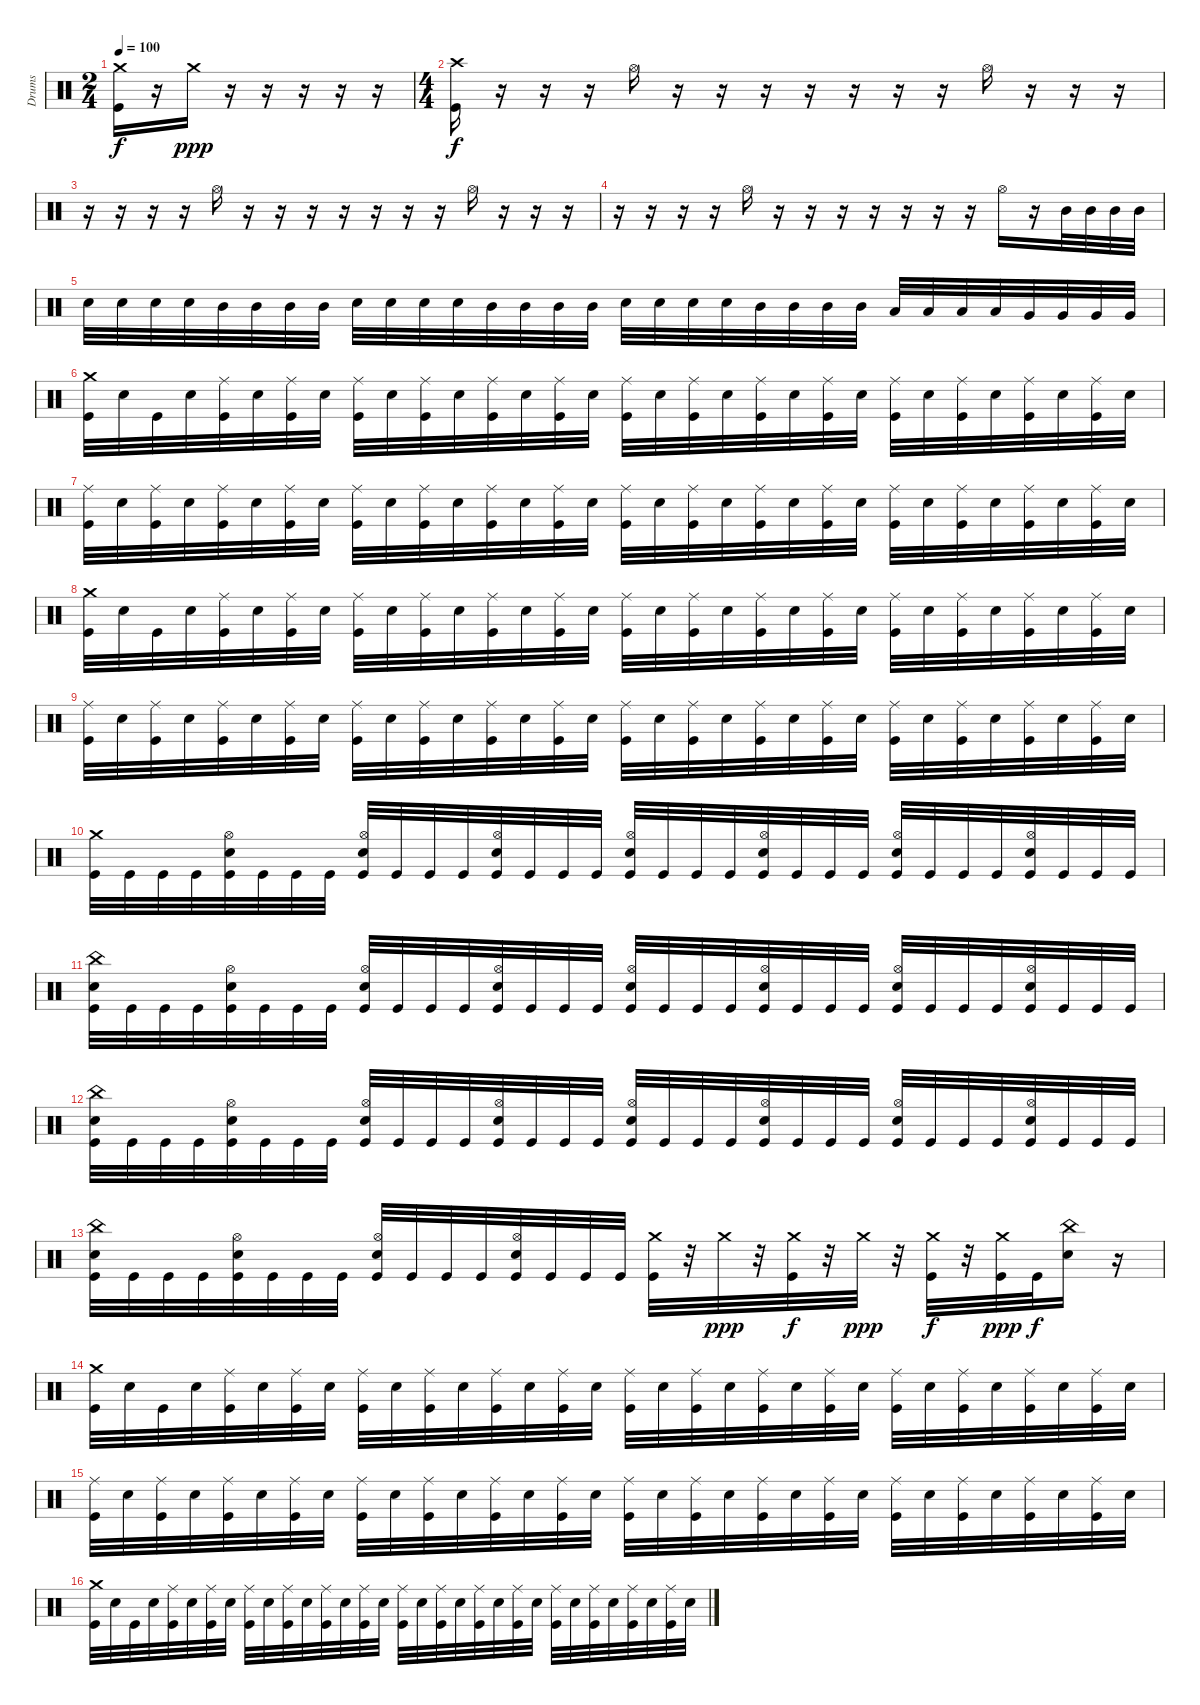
\track ("Drums" "Drums") {instrument percussion}
\staff {score}
\articulation defaults
\ts (2 4)
\tempo 100
\clef neutral
\ks c
("Crash medium (hit)" "Kick (hit)").16{dy f} r.16 "Crash medium (hit)".16{dy ppp} r.16 r.16 r.16 r.16 r.16 |
\ts (4 4)
("Crash high (hit)" "Kick (hit)").16{dy f} r.16 r.16 r.16 "Hi-Hat (open)".16 r.16 r.16 r.16 r.16 r.16 r.16 r.16 "Hi-Hat (open)".16 r.16 r.16 r.16 |
r.16 r.16 r.16 r.16 "Hi-Hat (open)".16 r.16 r.16 r.16 r.16 r.16 r.16 r.16 "Hi-Hat (open)".16 r.16 r.16 r.16 |
r.16 r.16 r.16 r.16 "Hi-Hat (open)".16 r.16 r.16 r.16 r.16 r.16 r.16 r.16 "Hi-Hat (open)".16 r.16 "Mid Tom (hit)".32 "Mid Tom (hit)".32 "Mid Tom (hit)".32 "Mid Tom (hit)".32 |
"Snare (hit) 2".32 "Snare (hit) 2".32 "Snare (hit) 2".32 "Snare (hit) 2".32 "Mid Tom (hit)".32 "Mid Tom (hit)".32 "Mid Tom (hit)".32 "Mid Tom (hit)".32 "Snare (hit) 2".32 "Snare (hit) 2".32 "Snare (hit) 2".32 "Snare (hit) 2".32 "Mid Tom (hit)".32 "Mid Tom (hit)".32 "Mid Tom (hit)".32 "Mid Tom (hit)".32 "Snare (hit) 2".32 "Snare (hit) 2".32 "Snare (hit) 2".32 "Snare (hit) 2".32 "Mid Tom (hit)".32 "Mid Tom (hit)".32 "Mid Tom (hit)".32 "Mid Tom (hit)".32 "Low Tom (hit)".32 "Low Tom (hit)".32 "Low Tom (hit)".32 "Low Tom (hit)".32 "Very Low Tom (hit)".32 "Very Low Tom (hit)".32 "Very Low Tom (hit)".32 "Very Low Tom (hit)".32 |
("Crash medium (hit)" "Kick (hit)").32 "Snare (hit) 2".32 "Kick (hit)".32 "Snare (hit) 2".32 ("Ride (middle)" "Kick (hit)").32 "Snare (hit) 2".32 ("Ride (middle)" "Kick (hit)").32 "Snare (hit) 2".32 ("Ride (middle)" "Kick (hit)").32 "Snare (hit) 2".32 ("Ride (middle)" "Kick (hit)").32 "Snare (hit) 2".32 ("Ride (middle)" "Kick (hit)").32 "Snare (hit) 2".32 ("Ride (middle)" "Kick (hit)").32 "Snare (hit) 2".32 ("Ride (middle)" "Kick (hit)").32 "Snare (hit) 2".32 ("Ride (middle)" "Kick (hit)").32 "Snare (hit) 2".32 ("Ride (middle)" "Kick (hit)").32 "Snare (hit) 2".32 ("Ride (middle)" "Kick (hit)").32 "Snare (hit) 2".32 ("Ride (middle)" "Kick (hit)").32 "Snare (hit) 2".32 ("Ride (middle)" "Kick (hit)").32 "Snare (hit) 2".32 ("Ride (middle)" "Kick (hit)").32 "Snare (hit) 2".32 ("Ride (middle)" "Kick (hit)").32 "Snare (hit) 2".32 |
("Ride (middle)" "Kick (hit)").32 "Snare (hit) 2".32 ("Ride (middle)" "Kick (hit)").32 "Snare (hit) 2".32 ("Ride (middle)" "Kick (hit)").32 "Snare (hit) 2".32 ("Ride (middle)" "Kick (hit)").32 "Snare (hit) 2".32 ("Ride (middle)" "Kick (hit)").32 "Snare (hit) 2".32 ("Ride (middle)" "Kick (hit)").32 "Snare (hit) 2".32 ("Ride (middle)" "Kick (hit)").32 "Snare (hit) 2".32 ("Ride (middle)" "Kick (hit)").32 "Snare (hit) 2".32 ("Ride (middle)" "Kick (hit)").32 "Snare (hit) 2".32 ("Ride (middle)" "Kick (hit)").32 "Snare (hit) 2".32 ("Ride (middle)" "Kick (hit)").32 "Snare (hit) 2".32 ("Ride (middle)" "Kick (hit)").32 "Snare (hit) 2".32 ("Ride (middle)" "Kick (hit)").32 "Snare (hit) 2".32 ("Ride (middle)" "Kick (hit)").32 "Snare (hit) 2".32 ("Ride (middle)" "Kick (hit)").32 "Snare (hit) 2".32 ("Ride (middle)" "Kick (hit)").32 "Snare (hit) 2".32 |
("Crash medium (hit)" "Kick (hit)").32 "Snare (hit) 2".32 "Kick (hit)".32 "Snare (hit) 2".32 ("Ride (middle)" "Kick (hit)").32 "Snare (hit) 2".32 ("Ride (middle)" "Kick (hit)").32 "Snare (hit) 2".32 ("Ride (middle)" "Kick (hit)").32 "Snare (hit) 2".32 ("Ride (middle)" "Kick (hit)").32 "Snare (hit) 2".32 ("Ride (middle)" "Kick (hit)").32 "Snare (hit) 2".32 ("Ride (middle)" "Kick (hit)").32 "Snare (hit) 2".32 ("Ride (middle)" "Kick (hit)").32 "Snare (hit) 2".32 ("Ride (middle)" "Kick (hit)").32 "Snare (hit) 2".32 ("Ride (middle)" "Kick (hit)").32 "Snare (hit) 2".32 ("Ride (middle)" "Kick (hit)").32 "Snare (hit) 2".32 ("Ride (middle)" "Kick (hit)").32 "Snare (hit) 2".32 ("Ride (middle)" "Kick (hit)").32 "Snare (hit) 2".32 ("Ride (middle)" "Kick (hit)").32 "Snare (hit) 2".32 ("Ride (middle)" "Kick (hit)").32 "Snare (hit) 2".32 |
("Ride (middle)" "Kick (hit)").32 "Snare (hit) 2".32 ("Ride (middle)" "Kick (hit)").32 "Snare (hit) 2".32 ("Ride (middle)" "Kick (hit)").32 "Snare (hit) 2".32 ("Ride (middle)" "Kick (hit)").32 "Snare (hit) 2".32 ("Ride (middle)" "Kick (hit)").32 "Snare (hit) 2".32 ("Ride (middle)" "Kick (hit)").32 "Snare (hit) 2".32 ("Ride (middle)" "Kick (hit)").32 "Snare (hit) 2".32 ("Ride (middle)" "Kick (hit)").32 "Snare (hit) 2".32 ("Ride (middle)" "Kick (hit)").32 "Snare (hit) 2".32 ("Ride (middle)" "Kick (hit)").32 "Snare (hit) 2".32 ("Ride (middle)" "Kick (hit)").32 "Snare (hit) 2".32 ("Ride (middle)" "Kick (hit)").32 "Snare (hit) 2".32 ("Ride (middle)" "Kick (hit)").32 "Snare (hit) 2".32 ("Ride (middle)" "Kick (hit)").32 "Snare (hit) 2".32 ("Ride (middle)" "Kick (hit)").32 "Snare (hit) 2".32 ("Ride (middle)" "Kick (hit)").32 "Snare (hit) 2".32 |
("Crash medium (hit)" "Kick (hit)").32 "Kick (hit)".32 "Kick (hit)".32 "Kick (hit)".32 ("Hi-Hat (open)" "Snare (hit) 2" "Kick (hit)").32 "Kick (hit)".32 "Kick (hit)".32 "Kick (hit)".32 ("Hi-Hat (open)" "Snare (hit) 2" "Kick (hit)").32 "Kick (hit)".32 "Kick (hit)".32 "Kick (hit)".32 ("Hi-Hat (open)" "Snare (hit) 2" "Kick (hit)").32 "Kick (hit)".32 "Kick (hit)".32 "Kick (hit)".32 ("Hi-Hat (open)" "Snare (hit) 2" "Kick (hit)").32 "Kick (hit)".32 "Kick (hit)".32 "Kick (hit)".32 ("Hi-Hat (open)" "Snare (hit) 2" "Kick (hit)").32 "Kick (hit)".32 "Kick (hit)".32 "Kick (hit)".32 ("Hi-Hat (open)" "Snare (hit) 2" "Kick (hit)").32 "Kick (hit)".32 "Kick (hit)".32 "Kick (hit)".32 ("Hi-Hat (open)" "Snare (hit) 2" "Kick (hit)").32 "Kick (hit)".32 "Kick (hit)".32 "Kick (hit)".32 |
("China (hit)" "Snare (hit) 2" "Kick (hit)").32 "Kick (hit)".32 "Kick (hit)".32 "Kick (hit)".32 ("Hi-Hat (open)" "Snare (hit) 2" "Kick (hit)").32 "Kick (hit)".32 "Kick (hit)".32 "Kick (hit)".32 ("Hi-Hat (open)" "Snare (hit) 2" "Kick (hit)").32 "Kick (hit)".32 "Kick (hit)".32 "Kick (hit)".32 ("Hi-Hat (open)" "Snare (hit) 2" "Kick (hit)").32 "Kick (hit)".32 "Kick (hit)".32 "Kick (hit)".32 ("Hi-Hat (open)" "Snare (hit) 2" "Kick (hit)").32 "Kick (hit)".32 "Kick (hit)".32 "Kick (hit)".32 ("Hi-Hat (open)" "Snare (hit) 2" "Kick (hit)").32 "Kick (hit)".32 "Kick (hit)".32 "Kick (hit)".32 ("Hi-Hat (open)" "Snare (hit) 2" "Kick (hit)").32 "Kick (hit)".32 "Kick (hit)".32 "Kick (hit)".32 ("Hi-Hat (open)" "Snare (hit) 2" "Kick (hit)").32 "Kick (hit)".32 "Kick (hit)".32 "Kick (hit)".32 |
("China (hit)" "Snare (hit) 2" "Kick (hit)").32 "Kick (hit)".32 "Kick (hit)".32 "Kick (hit)".32 ("Hi-Hat (open)" "Snare (hit) 2" "Kick (hit)").32 "Kick (hit)".32 "Kick (hit)".32 "Kick (hit)".32 ("Hi-Hat (open)" "Snare (hit) 2" "Kick (hit)").32 "Kick (hit)".32 "Kick (hit)".32 "Kick (hit)".32 ("Hi-Hat (open)" "Snare (hit) 2" "Kick (hit)").32 "Kick (hit)".32 "Kick (hit)".32 "Kick (hit)".32 ("Hi-Hat (open)" "Snare (hit) 2" "Kick (hit)").32 "Kick (hit)".32 "Kick (hit)".32 "Kick (hit)".32 ("Hi-Hat (open)" "Snare (hit) 2" "Kick (hit)").32 "Kick (hit)".32 "Kick (hit)".32 "Kick (hit)".32 ("Hi-Hat (open)" "Snare (hit) 2" "Kick (hit)").32 "Kick (hit)".32 "Kick (hit)".32 "Kick (hit)".32 ("Hi-Hat (open)" "Snare (hit) 2" "Kick (hit)").32 "Kick (hit)".32 "Kick (hit)".32 "Kick (hit)".32 |
("China (hit)" "Snare (hit) 2" "Kick (hit)").32 "Kick (hit)".32 "Kick (hit)".32 "Kick (hit)".32 ("Hi-Hat (open)" "Snare (hit) 2" "Kick (hit)").32 "Kick (hit)".32 "Kick (hit)".32 "Kick (hit)".32 ("Hi-Hat (open)" "Snare (hit) 2" "Kick (hit)").32 "Kick (hit)".32 "Kick (hit)".32 "Kick (hit)".32 ("Hi-Hat (open)" "Snare (hit) 2" "Kick (hit)").32 "Kick (hit)".32 "Kick (hit)".32 "Kick (hit)".32 ("Crash medium (hit)" "Kick (hit)").32 r.32 "Crash medium (hit)".32{dy ppp} r.32 ("Crash medium (hit)" "Kick (hit)").32{dy f} r.32 "Crash medium (hit)".32{dy ppp} r.32 ("Crash medium (hit)" "Kick (hit)").32{dy f} r.32 ("Crash medium (hit)" "Kick (hit)").32{dy ppp} "Kick (hit)".32{dy f} ("China (hit)" "Snare (hit) 2").16 r.16 |
("Crash medium (hit)" "Kick (hit)").32 "Snare (hit) 2".32 "Kick (hit)".32 "Snare (hit) 2".32 ("Ride (middle)" "Kick (hit)").32 "Snare (hit) 2".32 ("Ride (middle)" "Kick (hit)").32 "Snare (hit) 2".32 ("Ride (middle)" "Kick (hit)").32 "Snare (hit) 2".32 ("Ride (middle)" "Kick (hit)").32 "Snare (hit) 2".32 ("Ride (middle)" "Kick (hit)").32 "Snare (hit) 2".32 ("Ride (middle)" "Kick (hit)").32 "Snare (hit) 2".32 ("Ride (middle)" "Kick (hit)").32 "Snare (hit) 2".32 ("Ride (middle)" "Kick (hit)").32 "Snare (hit) 2".32 ("Ride (middle)" "Kick (hit)").32 "Snare (hit) 2".32 ("Ride (middle)" "Kick (hit)").32 "Snare (hit) 2".32 ("Ride (middle)" "Kick (hit)").32 "Snare (hit) 2".32 ("Ride (middle)" "Kick (hit)").32 "Snare (hit) 2".32 ("Ride (middle)" "Kick (hit)").32 "Snare (hit) 2".32 ("Ride (middle)" "Kick (hit)").32 "Snare (hit) 2".32 |
("Ride (middle)" "Kick (hit)").32 "Snare (hit) 2".32 ("Ride (middle)" "Kick (hit)").32 "Snare (hit) 2".32 ("Ride (middle)" "Kick (hit)").32 "Snare (hit) 2".32 ("Ride (middle)" "Kick (hit)").32 "Snare (hit) 2".32 ("Ride (middle)" "Kick (hit)").32 "Snare (hit) 2".32 ("Ride (middle)" "Kick (hit)").32 "Snare (hit) 2".32 ("Ride (middle)" "Kick (hit)").32 "Snare (hit) 2".32 ("Ride (middle)" "Kick (hit)").32 "Snare (hit) 2".32 ("Ride (middle)" "Kick (hit)").32 "Snare (hit) 2".32 ("Ride (middle)" "Kick (hit)").32 "Snare (hit) 2".32 ("Ride (middle)" "Kick (hit)").32 "Snare (hit) 2".32 ("Ride (middle)" "Kick (hit)").32 "Snare (hit) 2".32 ("Ride (middle)" "Kick (hit)").32 "Snare (hit) 2".32 ("Ride (middle)" "Kick (hit)").32 "Snare (hit) 2".32 ("Ride (middle)" "Kick (hit)").32 "Snare (hit) 2".32 ("Ride (middle)" "Kick (hit)").32 "Snare (hit) 2".32 |
("Crash medium (hit)" "Kick (hit)").32 "Snare (hit) 2".32 "Kick (hit)".32 "Snare (hit) 2".32 ("Ride (middle)" "Kick (hit)").32 "Snare (hit) 2".32 ("Ride (middle)" "Kick (hit)").32 "Snare (hit) 2".32 ("Ride (middle)" "Kick (hit)").32 "Snare (hit) 2".32 ("Ride (middle)" "Kick (hit)").32 "Snare (hit) 2".32 ("Ride (middle)" "Kick (hit)").32 "Snare (hit) 2".32 ("Ride (middle)" "Kick (hit)").32 "Snare (hit) 2".32 ("Ride (middle)" "Kick (hit)").32 "Snare (hit) 2".32 ("Ride (middle)" "Kick (hit)").32 "Snare (hit) 2".32 ("Ride (middle)" "Kick (hit)").32 "Snare (hit) 2".32 ("Ride (middle)" "Kick (hit)").32 "Snare (hit) 2".32 ("Ride (middle)" "Kick (hit)").32 "Snare (hit) 2".32 ("Ride (middle)" "Kick (hit)").32 "Snare (hit) 2".32 ("Ride (middle)" "Kick (hit)").32 "Snare (hit) 2".32 ("Ride (middle)" "Kick (hit)").32 "Snare (hit) 2".32
